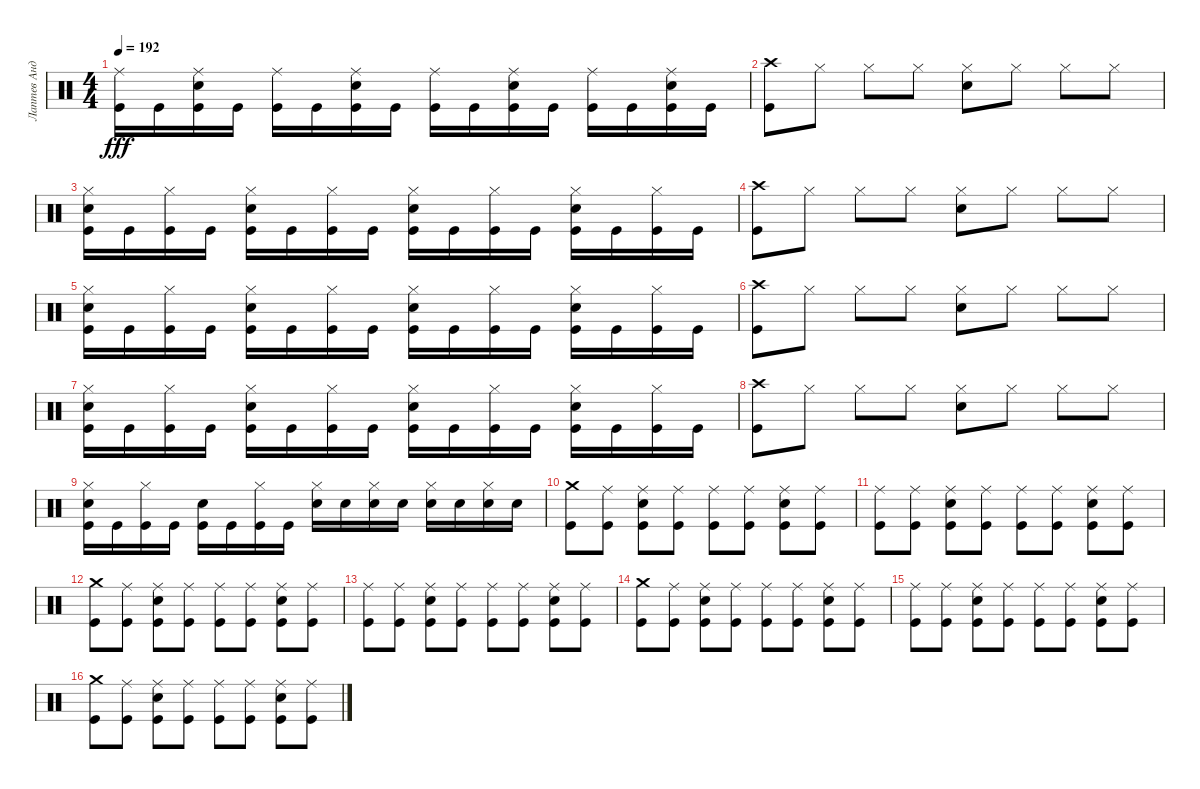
\track ("Лаптев Андрей" "Лаптев Анд") {instrument percussion}
\staff {score}
\articulation defaults
\ts (4 4)
\tempo 192
\clef neutral
\ks c
("Ride (middle)" "Kick (hit)").16{dy fff} "Kick (hit)".16 ("Kick (hit)" "Electric Snare (hit)" "Ride (middle)").16 "Kick (hit)".16 ("Ride (middle)" "Kick (hit)").16 "Kick (hit)".16 ("Electric Snare (hit)" "Kick (hit)" "Ride (middle)").16 "Kick (hit)".16 ("Ride (middle)" "Kick (hit)").16 "Kick (hit)".16 ("Electric Snare (hit)" "Kick (hit)" "Ride (middle)").16 "Kick (hit)".16 ("Ride (middle)" "Kick (hit)").16 "Kick (hit)".16 ("Ride (middle)" "Kick (hit)" "Electric Snare (hit)").16 "Kick (hit)".16 |
("Kick (hit)" "Crash high (hit)").8 "Hi-Hat (closed)".8 "Hi-Hat (closed)".8 "Hi-Hat (closed)".8 ("Electric Snare (hit)" "Hi-Hat (closed)").8 "Hi-Hat (closed)".8 "Hi-Hat (closed)".8 "Hi-Hat (closed)".8 |
("Electric Snare (hit)" "Hi-Hat (closed)" "Kick (hit)").16 "Kick (hit)".16 ("Kick (hit)" "Hi-Hat (closed)").16 "Kick (hit)".16 ("Kick (hit)" "Hi-Hat (closed)" "Electric Snare (hit)").16 "Kick (hit)".16 ("Hi-Hat (closed)" "Kick (hit)").16 "Kick (hit)".16 ("Hi-Hat (closed)" "Electric Snare (hit)" "Kick (hit)").16 "Kick (hit)".16 ("Hi-Hat (closed)" "Kick (hit)").16 "Kick (hit)".16 ("Hi-Hat (closed)" "Electric Snare (hit)" "Kick (hit)").16 "Kick (hit)".16 ("Kick (hit)" "Hi-Hat (closed)").16 "Kick (hit)".16 |
("Crash high (hit)" "Kick (hit)").8 "Hi-Hat (closed)".8 "Hi-Hat (closed)".8 "Hi-Hat (closed)".8 ("Hi-Hat (closed)" "Electric Snare (hit)").8 "Hi-Hat (closed)".8 "Hi-Hat (closed)".8 "Hi-Hat (closed)".8 |
("Kick (hit)" "Electric Snare (hit)" "Hi-Hat (closed)").16 "Kick (hit)".16 ("Kick (hit)" "Hi-Hat (closed)").16 "Kick (hit)".16 ("Kick (hit)" "Electric Snare (hit)" "Hi-Hat (closed)").16 "Kick (hit)".16 ("Kick (hit)" "Hi-Hat (closed)").16 "Kick (hit)".16 ("Kick (hit)" "Hi-Hat (closed)" "Electric Snare (hit)").16 "Kick (hit)".16 ("Hi-Hat (closed)" "Kick (hit)").16 "Kick (hit)".16 ("Electric Snare (hit)" "Hi-Hat (closed)" "Kick (hit)").16 "Kick (hit)".16 ("Kick (hit)" "Hi-Hat (closed)").16 "Kick (hit)".16 |
("Kick (hit)" "Crash high (hit)").8 "Hi-Hat (closed)".8 "Hi-Hat (closed)".8 "Hi-Hat (closed)".8 ("Electric Snare (hit)" "Hi-Hat (closed)").8 "Hi-Hat (closed)".8 "Hi-Hat (closed)".8 "Hi-Hat (closed)".8 |
("Hi-Hat (closed)" "Electric Snare (hit)" "Kick (hit)").16 "Kick (hit)".16 ("Kick (hit)" "Hi-Hat (closed)").16 "Kick (hit)".16 ("Hi-Hat (closed)" "Electric Snare (hit)" "Kick (hit)").16 "Kick (hit)".16 ("Kick (hit)" "Hi-Hat (closed)").16 "Kick (hit)".16 ("Hi-Hat (closed)" "Electric Snare (hit)" "Kick (hit)").16 "Kick (hit)".16 ("Kick (hit)" "Hi-Hat (closed)").16 "Kick (hit)".16 ("Electric Snare (hit)" "Kick (hit)" "Hi-Hat (closed)").16 "Kick (hit)".16 ("Hi-Hat (closed)" "Kick (hit)").16 "Kick (hit)".16 |
("Crash high (hit)" "Kick (hit)").8 "Hi-Hat (closed)".8 "Hi-Hat (closed)".8 "Hi-Hat (closed)".8 ("Electric Snare (hit)" "Hi-Hat (closed)").8 "Hi-Hat (closed)".8 "Hi-Hat (closed)".8 "Hi-Hat (closed)".8 |
("Kick (hit)" "Electric Snare (hit)" "Hi-Hat (closed)").16 "Kick (hit)".16 ("Hi-Hat (closed)" "Kick (hit)").16 "Kick (hit)".16 ("Kick (hit)" "Electric Snare (hit)").16 "Kick (hit)".16 ("Kick (hit)" "Hi-Hat (closed)").16 "Kick (hit)".16 ("Hi-Hat (closed)" "Electric Snare (hit)").16 "Electric Snare (hit)".16 ("Electric Snare (hit)" "Hi-Hat (closed)").16 "Electric Snare (hit)".16 ("Electric Snare (hit)" "Hi-Hat (closed)").16 "Electric Snare (hit)".16 ("Electric Snare (hit)" "Hi-Hat (closed)").16 "Electric Snare (hit)".16 |
("Crash medium (hit)" "Kick (hit)").8 ("Ride (middle)" "Kick (hit)").8 ("Kick (hit)" "Electric Snare (hit)" "Ride (middle)").8 ("Ride (middle)" "Kick (hit)").8 ("Kick (hit)" "Ride (middle)").8 ("Kick (hit)" "Ride (middle)").8 ("Kick (hit)" "Ride (middle)" "Electric Snare (hit)").8 ("Kick (hit)" "Ride (middle)").8 |
("Kick (hit)" "Ride (middle)").8 ("Kick (hit)" "Ride (middle)").8 ("Ride (middle)" "Electric Snare (hit)" "Kick (hit)").8 ("Kick (hit)" "Ride (middle)").8 ("Ride (middle)" "Kick (hit)").8 ("Kick (hit)" "Ride (middle)").8 ("Ride (middle)" "Electric Snare (hit)" "Kick (hit)").8 ("Ride (middle)" "Kick (hit)").8 |
("Crash medium (hit)" "Kick (hit)").8 ("Ride (middle)" "Kick (hit)").8 ("Kick (hit)" "Electric Snare (hit)" "Ride (middle)").8 ("Ride (middle)" "Kick (hit)").8 ("Ride (middle)" "Kick (hit)").8 ("Kick (hit)" "Ride (middle)").8 ("Electric Snare (hit)" "Ride (middle)" "Kick (hit)").8 ("Kick (hit)" "Ride (middle)").8 |
("Ride (middle)" "Kick (hit)").8 ("Ride (middle)" "Kick (hit)").8 ("Kick (hit)" "Electric Snare (hit)" "Ride (middle)").8 ("Ride (middle)" "Kick (hit)").8 ("Ride (middle)" "Kick (hit)").8 ("Ride (middle)" "Kick (hit)").8 ("Kick (hit)" "Electric Snare (hit)" "Ride (middle)").8 ("Ride (middle)" "Kick (hit)").8 |
("Kick (hit)" "Crash medium (hit)").8 ("Kick (hit)" "Ride (middle)").8 ("Electric Snare (hit)" "Ride (middle)" "Kick (hit)").8 ("Kick (hit)" "Ride (middle)").8 ("Ride (middle)" "Kick (hit)").8 ("Ride (middle)" "Kick (hit)").8 ("Kick (hit)" "Electric Snare (hit)" "Ride (middle)").8 ("Ride (middle)" "Kick (hit)").8 |
("Ride (middle)" "Kick (hit)").8 ("Kick (hit)" "Ride (middle)").8 ("Kick (hit)" "Electric Snare (hit)" "Ride (middle)").8 ("Kick (hit)" "Ride (middle)").8 ("Kick (hit)" "Ride (middle)").8 ("Kick (hit)" "Ride (middle)").8 ("Electric Snare (hit)" "Ride (middle)" "Kick (hit)").8 ("Ride (middle)" "Kick (hit)").8 |
("Crash medium (hit)" "Kick (hit)").8 ("Kick (hit)" "Ride (middle)").8 ("Kick (hit)" "Electric Snare (hit)" "Ride (middle)").8 ("Kick (hit)" "Ride (middle)").8 ("Kick (hit)" "Ride (middle)").8 ("Kick (hit)" "Ride (middle)").8 ("Electric Snare (hit)" "Kick (hit)" "Ride (middle)").8 ("Ride (middle)" "Kick (hit)").8
